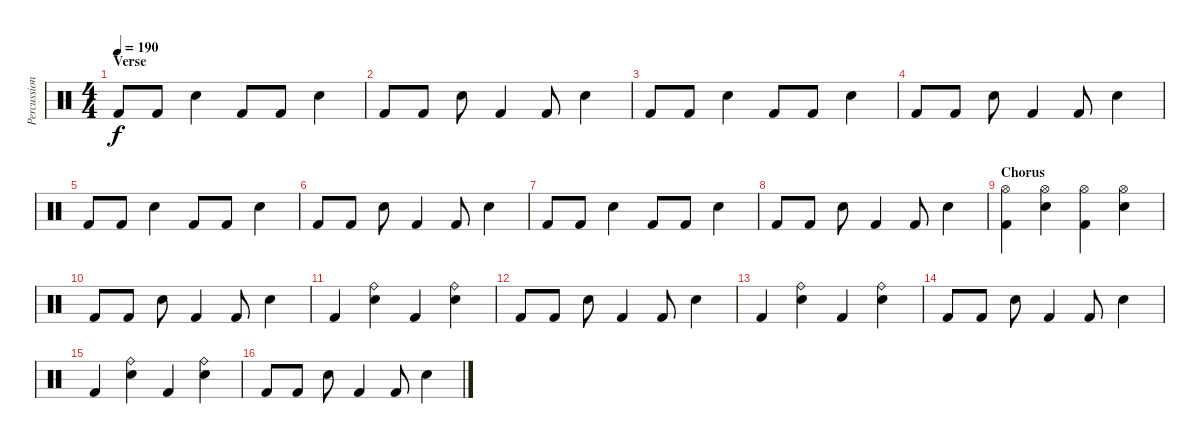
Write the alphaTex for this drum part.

\track ("Percussion" "Percussion") {instrument percussion}
\staff {score}
\articulation defaults
\ts (4 4)
\section ("" "Verse")
\tempo 190
\clef neutral
\ks c "Kick (hit) 2".8{dy f} "Kick (hit) 2".8 "Snare (hit) 2".4 "Kick (hit) 2".8 "Kick (hit) 2".8 "Snare (hit) 2".4
|
"Kick (hit) 2".8 "Kick (hit) 2".8 "Snare (hit) 2".8 "Kick (hit) 2".4 "Kick (hit) 2".8 "Snare (hit) 2".4 |
"Kick (hit) 2".8 "Kick (hit) 2".8 "Snare (hit) 2".4 "Kick (hit) 2".8 "Kick (hit) 2".8 "Snare (hit) 2".4 |
"Kick (hit) 2".8 "Kick (hit) 2".8 "Snare (hit) 2".8 "Kick (hit) 2".4 "Kick (hit) 2".8 "Snare (hit) 2".4 |
"Kick (hit) 2".8 "Kick (hit) 2".8 "Snare (hit) 2".4 "Kick (hit) 2".8 "Kick (hit) 2".8 "Snare (hit) 2".4 |
"Kick (hit) 2".8 "Kick (hit) 2".8 "Snare (hit) 2".8 "Kick (hit) 2".4 "Kick (hit) 2".8 "Snare (hit) 2".4 |
"Kick (hit) 2".8 "Kick (hit) 2".8 "Snare (hit) 2".4 "Kick (hit) 2".8 "Kick (hit) 2".8 "Snare (hit) 2".4 |
"Kick (hit) 2".8 "Kick (hit) 2".8 "Snare (hit) 2".8 "Kick (hit) 2".4 "Kick (hit) 2".8 "Snare (hit) 2".4 |
\section ("" "Chorus")
("Kick (hit) 2" "Hi-Hat (open)").4 ("Snare (hit) 2" "Hi-Hat (open)").4 ("Kick (hit) 2" "Hi-Hat (open)").4 ("Snare (hit) 2" "Hi-Hat (open)").4 |
"Kick (hit) 2".8 "Kick (hit) 2".8 "Snare (hit) 2".8 "Kick (hit) 2".4 "Kick (hit) 2".8 "Snare (hit) 2".4 |
"Kick (hit) 2".4 ("Snare (hit) 2" "Ride (bell)").4 "Kick (hit) 2".4 ("Snare (hit) 2" "Ride (bell)").4 |
"Kick (hit) 2".8 "Kick (hit) 2".8 "Snare (hit) 2".8 "Kick (hit) 2".4 "Kick (hit) 2".8 "Snare (hit) 2".4 |
"Kick (hit) 2".4 ("Snare (hit) 2" "Ride (bell)").4 "Kick (hit) 2".4 ("Snare (hit) 2" "Ride (bell)").4 |
"Kick (hit) 2".8 "Kick (hit) 2".8 "Snare (hit) 2".8 "Kick (hit) 2".4 "Kick (hit) 2".8 "Snare (hit) 2".4 |
"Kick (hit) 2".4 ("Ride (bell)" "Snare (hit) 2").4 "Kick (hit) 2".4 ("Ride (bell)" "Snare (hit) 2").4 |
"Kick (hit) 2".8 "Kick (hit) 2".8 "Snare (hit) 2".8 "Kick (hit) 2".4 "Kick (hit) 2".8 "Snare (hit) 2".4
